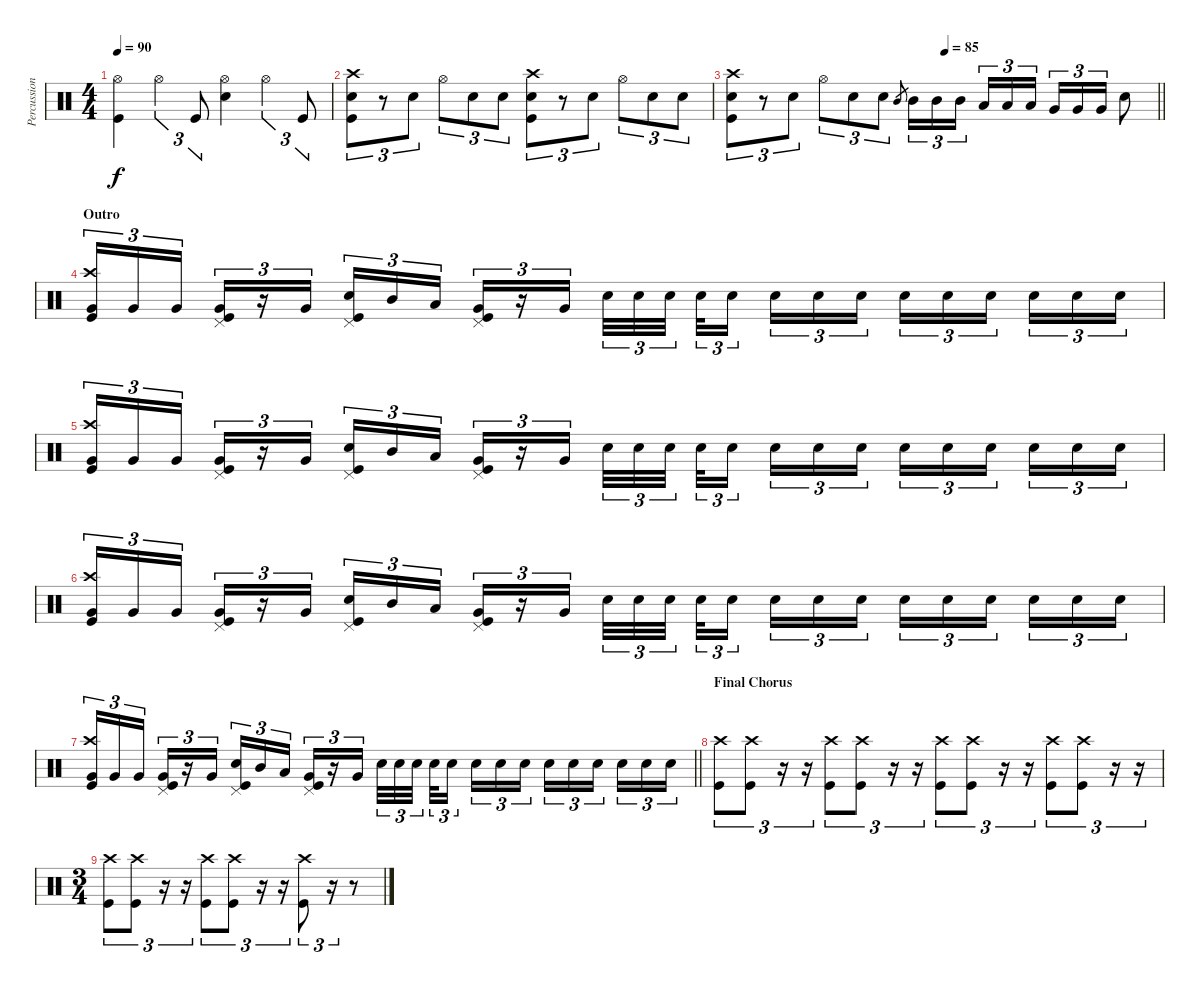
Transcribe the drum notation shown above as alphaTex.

\track ("Percussion" "Percussion") {instrument percussion}
\staff {score}
\articulation defaults
\ts (4 4)
\tempo 90
\clef neutral
\ks c
("Hi-Hat (open)" "Kick (hit)").4{dy f} "Hi-Hat (open)".4{tu (3 2)} "Kick (hit)".8{tu (3 2)} ("Hi-Hat (open)" "Electric Snare (hit)").4 "Hi-Hat (open)".4{tu (3 2)} "Kick (hit)".8{tu (3 2)} |
("Crash high (hit)" "Electric Snare (hit)" "Kick (hit)").8{tu (3 2)} r.8{tu (3 2)} "Electric Snare (hit)".8{tu (3 2)} "Hi-Hat (open)".8{tu (3 2)} "Electric Snare (hit)".8{tu (3 2)} "Electric Snare (hit)".8{tu (3 2)} ("Crash high (hit)" "Electric Snare (hit)" "Kick (hit)").8{tu (3 2)} r.8{tu (3 2)} "Electric Snare (hit)".8{tu (3 2)} "Hi-Hat (open)".8{tu (3 2)} "Electric Snare (hit)".8{tu (3 2)} "Electric Snare (hit)".8{tu (3 2)} |
\tempo (85 0.5)
\barLineRight lightlight
("Crash high (hit)" "Electric Snare (hit)" "Kick (hit)").8{tu (3 2)} r.8{tu (3 2)} "Electric Snare (hit)".8{tu (3 2)} "Hi-Hat (open)".8{tu (3 2)} "Electric Snare (hit)".8{tu (3 2)} "Electric Snare (hit)".8{tu (3 2)} "Mid Tom (hit)".8{gr} "Mid Tom (hit)".16{tu (3 2)} "Mid Tom (hit)".16{tu (3 2)} "Mid Tom (hit)".16{tu (3 2) beam splitsecondary} "Low Tom (hit)".16{tu (3 2)} "Low Tom (hit)".16{tu (3 2)} "Low Tom (hit)".16{tu (3 2)} "Very Low Tom (hit)".16{tu (3 2)} "Very Low Tom (hit)".16{tu (3 2)} "Very Low Tom (hit)".16{tu (3 2)} "Electric Snare (hit)".8 |
\section ("" "Outro")
("Crash high (hit)" "Very Low Tom (hit)" "Kick (hit)").16{tu (3 2)} "Very Low Tom (hit)".16{tu (3 2)} "Very Low Tom (hit)".16{tu (3 2) beam splitsecondary} ("Pedal Hi-Hat (hit)" "Very Low Tom (hit)" "Kick (hit)").16{tu (3 2)} r.16{tu (3 2)} "Very Low Tom (hit)".16{tu (3 2)} ("Pedal Hi-Hat (hit)" "Electric Snare (hit)" "Kick (hit)").16{tu (3 2)} "Mid Tom (hit)".16{tu (3 2)} "Low Tom (hit)".16{tu (3 2) beam splitsecondary} ("Pedal Hi-Hat (hit)" "Very Low Tom (hit)" "Kick (hit)").16{tu (3 2)} r.16{tu (3 2)} "Very Low Tom (hit)".16{tu (3 2)} "Electric Snare (hit)".32{tu (3 2)} "Electric Snare (hit)".32{tu (3 2)} "Electric Snare (hit)".32{tu (3 2) beam splitsecondary} "Electric Snare (hit)".32{tu (3 2)} "Electric Snare (hit)".16{tu (3 2) beam splitsecondary} "Electric Snare (hit)".16{tu (3 2)} "Electric Snare (hit)".16{tu (3 2)} "Electric Snare (hit)".16{tu (3 2)} "Electric Snare (hit)".16{tu (3 2)} "Electric Snare (hit)".16{tu (3 2)} "Electric Snare (hit)".16{tu (3 2) beam splitsecondary} "Electric Snare (hit)".16{tu (3 2)} "Electric Snare (hit)".16{tu (3 2)} "Electric Snare (hit)".16{tu (3 2)} |
("Crash high (hit)" "Very Low Tom (hit)" "Kick (hit)").16{tu (3 2)} "Very Low Tom (hit)".16{tu (3 2)} "Very Low Tom (hit)".16{tu (3 2) beam splitsecondary} ("Pedal Hi-Hat (hit)" "Very Low Tom (hit)" "Kick (hit)").16{tu (3 2)} r.16{tu (3 2)} "Very Low Tom (hit)".16{tu (3 2)} ("Pedal Hi-Hat (hit)" "Electric Snare (hit)" "Kick (hit)").16{tu (3 2)} "Mid Tom (hit)".16{tu (3 2)} "Low Tom (hit)".16{tu (3 2) beam splitsecondary} ("Pedal Hi-Hat (hit)" "Very Low Tom (hit)" "Kick (hit)").16{tu (3 2)} r.16{tu (3 2)} "Very Low Tom (hit)".16{tu (3 2)} "Electric Snare (hit)".32{tu (3 2)} "Electric Snare (hit)".32{tu (3 2)} "Electric Snare (hit)".32{tu (3 2) beam splitsecondary} "Electric Snare (hit)".32{tu (3 2)} "Electric Snare (hit)".16{tu (3 2) beam splitsecondary} "Electric Snare (hit)".16{tu (3 2)} "Electric Snare (hit)".16{tu (3 2)} "Electric Snare (hit)".16{tu (3 2)} "Electric Snare (hit)".16{tu (3 2)} "Electric Snare (hit)".16{tu (3 2)} "Electric Snare (hit)".16{tu (3 2) beam splitsecondary} "Electric Snare (hit)".16{tu (3 2)} "Electric Snare (hit)".16{tu (3 2)} "Electric Snare (hit)".16{tu (3 2)} |
("Crash high (hit)" "Very Low Tom (hit)" "Kick (hit)").16{tu (3 2)} "Very Low Tom (hit)".16{tu (3 2)} "Very Low Tom (hit)".16{tu (3 2) beam splitsecondary} ("Pedal Hi-Hat (hit)" "Very Low Tom (hit)" "Kick (hit)").16{tu (3 2)} r.16{tu (3 2)} "Very Low Tom (hit)".16{tu (3 2)} ("Pedal Hi-Hat (hit)" "Electric Snare (hit)" "Kick (hit)").16{tu (3 2)} "Mid Tom (hit)".16{tu (3 2)} "Low Tom (hit)".16{tu (3 2) beam splitsecondary} ("Pedal Hi-Hat (hit)" "Very Low Tom (hit)" "Kick (hit)").16{tu (3 2)} r.16{tu (3 2)} "Very Low Tom (hit)".16{tu (3 2)} "Electric Snare (hit)".32{tu (3 2)} "Electric Snare (hit)".32{tu (3 2)} "Electric Snare (hit)".32{tu (3 2) beam splitsecondary} "Electric Snare (hit)".32{tu (3 2)} "Electric Snare (hit)".16{tu (3 2) beam splitsecondary} "Electric Snare (hit)".16{tu (3 2)} "Electric Snare (hit)".16{tu (3 2)} "Electric Snare (hit)".16{tu (3 2)} "Electric Snare (hit)".16{tu (3 2)} "Electric Snare (hit)".16{tu (3 2)} "Electric Snare (hit)".16{tu (3 2) beam splitsecondary} "Electric Snare (hit)".16{tu (3 2)} "Electric Snare (hit)".16{tu (3 2)} "Electric Snare (hit)".16{tu (3 2)} |
\barLineRight lightlight
("Crash high (hit)" "Very Low Tom (hit)" "Kick (hit)").16{tu (3 2)} "Very Low Tom (hit)".16{tu (3 2)} "Very Low Tom (hit)".16{tu (3 2) beam splitsecondary} ("Pedal Hi-Hat (hit)" "Very Low Tom (hit)" "Kick (hit)").16{tu (3 2)} r.16{tu (3 2)} "Very Low Tom (hit)".16{tu (3 2)} ("Pedal Hi-Hat (hit)" "Electric Snare (hit)" "Kick (hit)").16{tu (3 2)} "Mid Tom (hit)".16{tu (3 2)} "Low Tom (hit)".16{tu (3 2) beam splitsecondary} ("Pedal Hi-Hat (hit)" "Very Low Tom (hit)" "Kick (hit)").16{tu (3 2)} r.16{tu (3 2)} "Very Low Tom (hit)".16{tu (3 2)} "Electric Snare (hit)".32{tu (3 2)} "Electric Snare (hit)".32{tu (3 2)} "Electric Snare (hit)".32{tu (3 2) beam splitsecondary} "Electric Snare (hit)".32{tu (3 2)} "Electric Snare (hit)".16{tu (3 2) beam splitsecondary} "Electric Snare (hit)".16{tu (3 2)} "Electric Snare (hit)".16{tu (3 2)} "Electric Snare (hit)".16{tu (3 2)} "Electric Snare (hit)".16{tu (3 2)} "Electric Snare (hit)".16{tu (3 2)} "Electric Snare (hit)".16{tu (3 2) beam splitsecondary} "Electric Snare (hit)".16{tu (3 2)} "Electric Snare (hit)".16{tu (3 2)} "Electric Snare (hit)".16{tu (3 2)} |
\section ("" "Final Chorus")
("Crash high (hit)" "Kick (hit)").8{tu (3 2)} ("Crash high (hit)" "Kick (hit)").8{tu (3 2)} r.16{tu (3 2) volume 0} r.16{tu (3 2)} ("Crash high (hit)" "Kick (hit)").8{tu (3 2) volume 16} ("Crash high (hit)" "Kick (hit)").8{tu (3 2)} r.16{tu (3 2) volume 0} r.16{tu (3 2)} ("Crash high (hit)" "Kick (hit)").8{tu (3 2) volume 16} ("Crash high (hit)" "Kick (hit)").8{tu (3 2)} r.16{tu (3 2) volume 0} r.16{tu (3 2)} ("Crash high (hit)" "Kick (hit)").8{tu (3 2) volume 16} ("Crash high (hit)" "Kick (hit)").8{tu (3 2)} r.16{tu (3 2) volume 0} r.16{tu (3 2)} |
\ts (3 4)
("Crash high (hit)" "Kick (hit)").8{tu (3 2) volume 16} ("Crash high (hit)" "Kick (hit)").8{tu (3 2)} r.16{tu (3 2) volume 0} r.16{tu (3 2)} ("Crash high (hit)" "Kick (hit)").8{tu (3 2) volume 16} ("Crash high (hit)" "Kick (hit)").8{tu (3 2)} r.16{tu (3 2) volume 0} r.16{tu (3 2)} ("Crash high (hit)" "Kick (hit)").8{tu (3 2) volume 16} r.16{tu (3 2) volume 0} r.8
